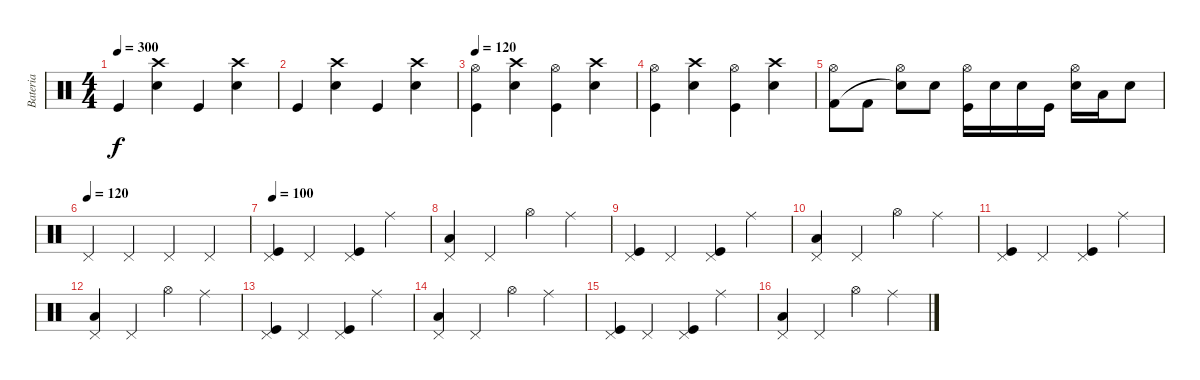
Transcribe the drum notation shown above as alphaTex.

\track ("Bateria" "Bateria") {instrument percussion}
\staff {score}
\articulation defaults
\ts (4 4)
\tempo 300
\clef neutral
\ks c "Kick (hit)".4{dy f}
("Crash high (hit)" "Electric Snare (hit)").4 "Kick (hit)".4 ("Crash high (hit)" "Electric Snare (hit)").4 |
"Kick (hit)".4 ("Crash high (hit)" "Electric Snare (hit)").4 "Kick (hit)".4 ("Crash high (hit)" "Electric Snare (hit)").4 |
\tempo 120
("Hi-Hat (open)" "Kick (hit)").4 ("Crash high (hit)" "Electric Snare (hit)").4 ("Hi-Hat (open)" "Kick (hit)").4 ("Crash high (hit)" "Electric Snare (hit)").4 |
("Hi-Hat (open)" "Kick (hit)").4 ("Crash high (hit)" "Electric Snare (hit)").4 ("Hi-Hat (open)" "Kick (hit)").4 ("Crash high (hit)" "Electric Snare (hit)").4 |
("Hi-Hat (open)" "Kick (hit) 2").8 "Kick (hit) 2".8 ("Hi-Hat (open)" "Snare (hit)"{t}).8 "Electric Snare (hit)".8 ("Hi-Hat (open)" "Kick (hit)").16 "Electric Snare (hit)".16 "Electric Snare (hit)".16 "Kick (hit)".16 ("Hi-Hat (open)" "Electric Snare (hit)").16 "Low Tom (hit)".16 "Electric Snare (hit)".8 |
\tempo 100
\tempo (120)
"Pedal Hi-Hat (hit)".4 "Pedal Hi-Hat (hit)".4 "Pedal Hi-Hat (hit)".4 "Pedal Hi-Hat (hit)".4 |
\tempo 120
\tempo 100
("Pedal Hi-Hat (hit)" "Kick (hit)").4 "Pedal Hi-Hat (hit)".4 ("Pedal Hi-Hat (hit)" "Kick (hit)").4 "Ride (middle)".4 |
("Pedal Hi-Hat (hit)" "Low Floor Tom (hit)").4 "Pedal Hi-Hat (hit)".4 "Hi-Hat (open)".4 "Ride (middle)".4 |
("Pedal Hi-Hat (hit)" "Kick (hit)").4 "Pedal Hi-Hat (hit)".4 ("Pedal Hi-Hat (hit)" "Kick (hit)").4 "Ride (middle)".4 |
("Pedal Hi-Hat (hit)" "Low Floor Tom (hit)").4 "Pedal Hi-Hat (hit)".4 "Hi-Hat (open)".4 "Ride (middle)".4 |
("Pedal Hi-Hat (hit)" "Kick (hit)").4 "Pedal Hi-Hat (hit)".4 ("Pedal Hi-Hat (hit)" "Kick (hit)").4 "Ride (middle)".4 |
("Pedal Hi-Hat (hit)" "Low Floor Tom (hit)").4 "Pedal Hi-Hat (hit)".4 "Hi-Hat (open)".4 "Ride (middle)".4 |
("Pedal Hi-Hat (hit)" "Kick (hit)").4 "Pedal Hi-Hat (hit)".4 ("Pedal Hi-Hat (hit)" "Kick (hit)").4 "Ride (middle)".4 |
("Pedal Hi-Hat (hit)" "Low Floor Tom (hit)").4 "Pedal Hi-Hat (hit)".4 "Hi-Hat (open)".4 "Ride (middle)".4 |
("Pedal Hi-Hat (hit)" "Kick (hit)").4 "Pedal Hi-Hat (hit)".4 ("Pedal Hi-Hat (hit)" "Kick (hit)").4 "Ride (middle)".4 |
("Pedal Hi-Hat (hit)" "Low Floor Tom (hit)").4 "Pedal Hi-Hat (hit)".4 "Hi-Hat (open)".4 "Ride (middle)".4
